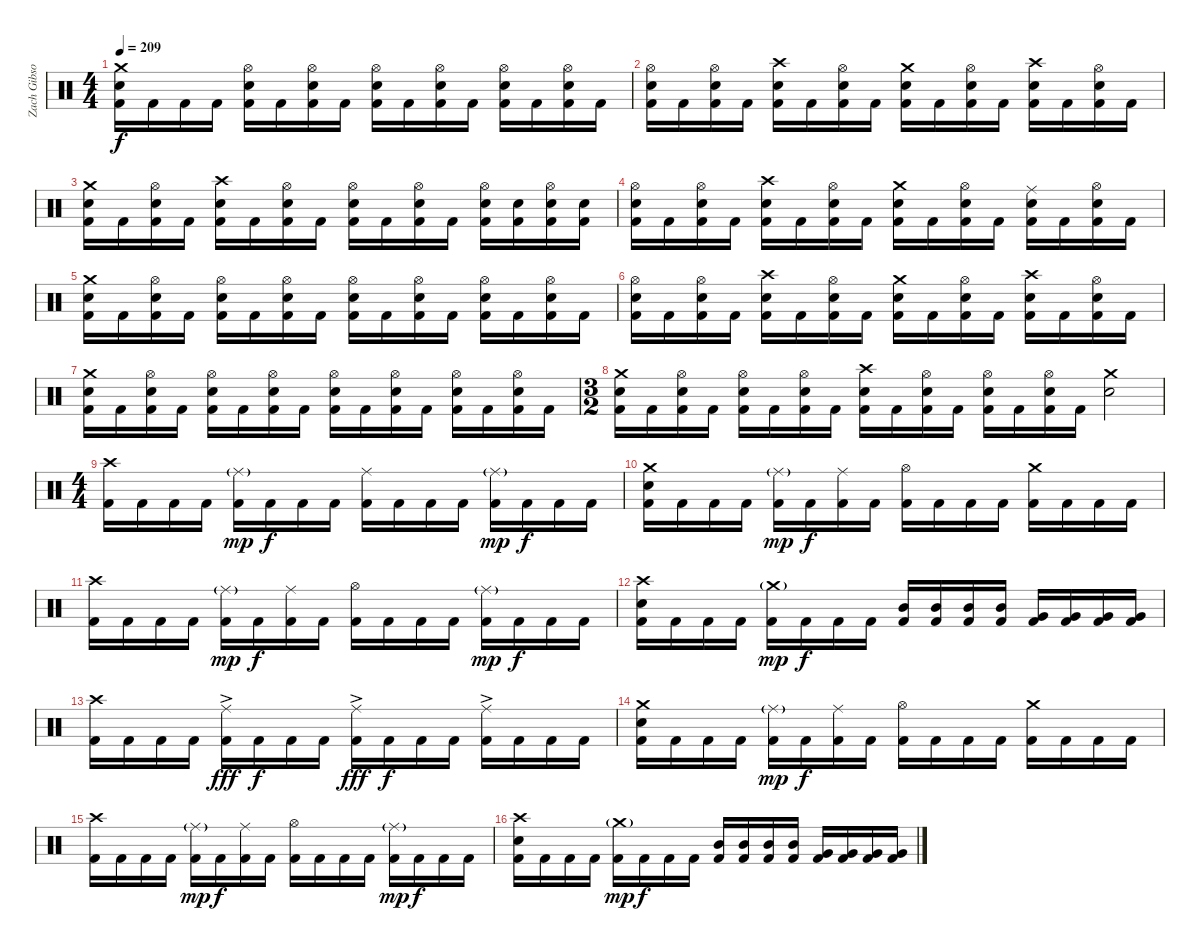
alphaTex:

\track ("Zach Gibson (Drums)" "Zach Gibso") {instrument percussion}
\staff {score}
\articulation defaults
\ts (4 4)
\tempo 209
\clef neutral
\ks c
("Crash medium (hit)" "Snare (hit) 2" "Kick (hit) 2").16{dy f} "Kick (hit) 2".16 "Kick (hit) 2".16 "Kick (hit) 2".16 ("Hi-Hat (open)" "Snare (hit) 2" "Kick (hit) 2").16 "Kick (hit) 2".16 ("Hi-Hat (open)" "Snare (hit) 2" "Kick (hit) 2").16 "Kick (hit) 2".16 ("Hi-Hat (open)" "Snare (hit) 2" "Kick (hit) 2").16 "Kick (hit) 2".16 ("Hi-Hat (open)" "Snare (hit) 2" "Kick (hit) 2").16 "Kick (hit) 2".16 ("Hi-Hat (open)" "Snare (hit) 2" "Kick (hit) 2").16 "Kick (hit) 2".16 ("Hi-Hat (open)" "Snare (hit) 2" "Kick (hit) 2").16 "Kick (hit) 2".16 |
("Hi-Hat (open)" "Snare (hit) 2" "Kick (hit) 2").16 "Kick (hit) 2".16 ("Hi-Hat (open)" "Snare (hit) 2" "Kick (hit) 2").16 "Kick (hit) 2".16 ("Crash high (hit)" "Snare (hit) 2" "Kick (hit) 2").16 "Kick (hit) 2".16 ("Hi-Hat (open)" "Snare (hit) 2" "Kick (hit) 2").16 "Kick (hit) 2".16 ("Crash medium (hit)" "Snare (hit) 2" "Kick (hit) 2").16 "Kick (hit) 2".16 ("Hi-Hat (open)" "Snare (hit) 2" "Kick (hit) 2").16 "Kick (hit) 2".16 ("Crash high (hit)" "Snare (hit) 2" "Kick (hit) 2").16 "Kick (hit) 2".16 ("Hi-Hat (open)" "Snare (hit) 2" "Kick (hit) 2").16 "Kick (hit) 2".16 |
("Crash medium (hit)" "Snare (hit) 2" "Kick (hit) 2").16 "Kick (hit) 2".16 ("Hi-Hat (open)" "Snare (hit) 2" "Kick (hit) 2").16 "Kick (hit) 2".16 ("Crash high (hit)" "Snare (hit) 2" "Kick (hit) 2").16 "Kick (hit) 2".16 ("Hi-Hat (open)" "Snare (hit) 2" "Kick (hit) 2").16 "Kick (hit) 2".16 ("Hi-Hat (open)" "Snare (hit) 2" "Kick (hit) 2").16 "Kick (hit) 2".16 ("Hi-Hat (open)" "Snare (hit) 2" "Kick (hit) 2").16 "Kick (hit) 2".16 ("Hi-Hat (open)" "Snare (hit) 2" "Kick (hit) 2").16 ("Snare (hit) 2" "Kick (hit) 2").16 ("Hi-Hat (open)" "Snare (hit) 2" "Kick (hit) 2").16 ("Snare (hit) 2" "Kick (hit) 2").16 |
("Hi-Hat (open)" "Snare (hit) 2" "Kick (hit) 2").16 "Kick (hit) 2".16 ("Hi-Hat (open)" "Snare (hit) 2" "Kick (hit) 2").16 "Kick (hit) 2".16 ("Crash high (hit)" "Snare (hit) 2" "Kick (hit) 2").16 "Kick (hit) 2".16 ("Hi-Hat (open)" "Snare (hit) 2" "Kick (hit) 2").16 "Kick (hit) 2".16 ("Crash medium (hit)" "Snare (hit) 2" "Kick (hit) 2").16 "Kick (hit) 2".16 ("Hi-Hat (open)" "Snare (hit) 2" "Kick (hit) 2").16 "Kick (hit) 2".16 ("Ride (middle)" "Snare (hit) 2" "Kick (hit) 2").16 "Kick (hit) 2".16 ("Hi-Hat (open)" "Snare (hit) 2" "Kick (hit) 2").16 "Kick (hit) 2".16 |
("Crash medium (hit)" "Snare (hit) 2" "Kick (hit) 2").16 "Kick (hit) 2".16 ("Hi-Hat (open)" "Snare (hit) 2" "Kick (hit) 2").16 "Kick (hit) 2".16 ("Hi-Hat (open)" "Snare (hit) 2" "Kick (hit) 2").16 "Kick (hit) 2".16 ("Hi-Hat (open)" "Snare (hit) 2" "Kick (hit) 2").16 "Kick (hit) 2".16 ("Hi-Hat (open)" "Snare (hit) 2" "Kick (hit) 2").16 "Kick (hit) 2".16 ("Hi-Hat (open)" "Snare (hit) 2" "Kick (hit) 2").16 "Kick (hit) 2".16 ("Hi-Hat (open)" "Snare (hit) 2" "Kick (hit) 2").16 "Kick (hit) 2".16 ("Hi-Hat (open)" "Snare (hit) 2" "Kick (hit) 2").16 "Kick (hit) 2".16 |
("Hi-Hat (open)" "Snare (hit) 2" "Kick (hit) 2").16 "Kick (hit) 2".16 ("Hi-Hat (open)" "Snare (hit) 2" "Kick (hit) 2").16 "Kick (hit) 2".16 ("Crash high (hit)" "Snare (hit) 2" "Kick (hit) 2").16 "Kick (hit) 2".16 ("Hi-Hat (open)" "Snare (hit) 2" "Kick (hit) 2").16 "Kick (hit) 2".16 ("Crash medium (hit)" "Snare (hit) 2" "Kick (hit) 2").16 "Kick (hit) 2".16 ("Hi-Hat (open)" "Snare (hit) 2" "Kick (hit) 2").16 "Kick (hit) 2".16 ("Crash high (hit)" "Snare (hit) 2" "Kick (hit) 2").16 "Kick (hit) 2".16 ("Hi-Hat (open)" "Snare (hit) 2" "Kick (hit) 2").16 "Kick (hit) 2".16 |
("Crash medium (hit)" "Snare (hit) 2" "Kick (hit) 2").16 "Kick (hit) 2".16 ("Hi-Hat (open)" "Snare (hit) 2" "Kick (hit) 2").16 "Kick (hit) 2".16 ("Hi-Hat (open)" "Snare (hit) 2" "Kick (hit) 2").16 "Kick (hit) 2".16 ("Hi-Hat (open)" "Snare (hit) 2" "Kick (hit) 2").16 "Kick (hit) 2".16 ("Hi-Hat (open)" "Snare (hit) 2" "Kick (hit) 2").16 "Kick (hit) 2".16 ("Hi-Hat (open)" "Snare (hit) 2" "Kick (hit) 2").16 "Kick (hit) 2".16 ("Hi-Hat (open)" "Snare (hit) 2" "Kick (hit) 2").16 "Kick (hit) 2".16 ("Hi-Hat (open)" "Snare (hit) 2" "Kick (hit) 2").16 "Kick (hit) 2".16 |
\ts (3 2)
("Crash medium (hit)" "Snare (hit) 2" "Kick (hit) 2").16 "Kick (hit) 2".16 ("Hi-Hat (open)" "Snare (hit) 2" "Kick (hit) 2").16 "Kick (hit) 2".16 ("Hi-Hat (open)" "Snare (hit) 2" "Kick (hit) 2").16 "Kick (hit) 2".16 ("Hi-Hat (open)" "Snare (hit) 2" "Kick (hit) 2").16 "Kick (hit) 2".16 ("Crash high (hit)" "Snare (hit) 2" "Kick (hit) 2").16 "Kick (hit) 2".16 ("Hi-Hat (open)" "Snare (hit) 2" "Kick (hit) 2").16 "Kick (hit) 2".16 ("Hi-Hat (open)" "Snare (hit) 2" "Kick (hit) 2").16 "Kick (hit) 2".16 ("Hi-Hat (open)" "Snare (hit) 2" "Kick (hit) 2").16 "Kick (hit) 2".16 ("Crash medium (hit)" "Snare (hit) 2").2 |
\ts (4 4)
("Crash high (hit)" "Kick (hit) 2").16 "Kick (hit) 2".16 "Kick (hit) 2".16 "Kick (hit) 2".16 ("Ride (middle)"{g} "Kick (hit) 2").16{dy mp} "Kick (hit) 2".16{dy f} "Kick (hit) 2".16 "Kick (hit) 2".16 ("Ride (middle)" "Kick (hit) 2").16 "Kick (hit) 2".16 "Kick (hit) 2".16 "Kick (hit) 2".16 ("Ride (middle)"{g} "Kick (hit) 2").16{dy mp} "Kick (hit) 2".16{dy f} "Kick (hit) 2".16 "Kick (hit) 2".16 |
("Crash medium (hit)" "Snare (hit) 2" "Kick (hit) 2").16 "Kick (hit) 2".16 "Kick (hit) 2".16 "Kick (hit) 2".16 ("Ride (middle)"{g} "Kick (hit) 2").16{dy mp} "Kick (hit) 2".16{dy f} ("Ride (middle)" "Kick (hit) 2").16 "Kick (hit) 2".16 ("Hi-Hat (open)" "Kick (hit) 2").16 "Kick (hit) 2".16 "Kick (hit) 2".16 "Kick (hit) 2".16 ("Crash medium (hit)" "Kick (hit) 2").16 "Kick (hit) 2".16 "Kick (hit) 2".16 "Kick (hit) 2".16 |
("Crash high (hit)" "Kick (hit) 2").16 "Kick (hit) 2".16 "Kick (hit) 2".16 "Kick (hit) 2".16 ("Ride (middle)"{g} "Kick (hit) 2").16{dy mp} "Kick (hit) 2".16{dy f} ("Ride (middle)" "Kick (hit) 2").16 "Kick (hit) 2".16 ("Hi-Hat (open)" "Kick (hit) 2").16 "Kick (hit) 2".16 "Kick (hit) 2".16 "Kick (hit) 2".16 ("Ride (middle)"{g} "Kick (hit) 2").16{dy mp} "Kick (hit) 2".16{dy f} "Kick (hit) 2".16 "Kick (hit) 2".16 |
("Snare (hit) 2" "Crash high (hit)" "Kick (hit) 2").16 "Kick (hit) 2".16 "Kick (hit) 2".16 "Kick (hit) 2".16 ("Crash medium (hit)"{g} "Kick (hit) 2").16{dy mp} "Kick (hit) 2".16{dy f} "Kick (hit) 2".16 "Kick (hit) 2".16 ("Mid Tom (hit)" "Kick (hit) 2").16 ("Mid Tom (hit)" "Kick (hit) 2").16 ("Mid Tom (hit)" "Kick (hit) 2").16 ("Mid Tom (hit)" "Kick (hit) 2").16 ("Very Low Tom (hit)" "Kick (hit) 2").16 ("Very Low Tom (hit)" "Kick (hit) 2").16 ("Very Low Tom (hit)" "Kick (hit) 2").16 ("Very Low Tom (hit)" "Kick (hit) 2").16 |
("Crash high (hit)" "Kick (hit) 2").16 "Kick (hit) 2".16 "Kick (hit) 2".16 "Kick (hit) 2".16 ("Ride (middle)"{ac} "Kick (hit) 2").16{dy fff} "Kick (hit) 2".16{dy f} "Kick (hit) 2".16 "Kick (hit) 2".16 ("Ride (middle)"{ac} "Kick (hit) 2").16{dy fff} "Kick (hit) 2".16{dy f} "Kick (hit) 2".16 "Kick (hit) 2".16 ("Ride (middle)"{ac} "Kick (hit) 2").16 "Kick (hit) 2".16 "Kick (hit) 2".16 "Kick (hit) 2".16 |
("Crash medium (hit)" "Snare (hit) 2" "Kick (hit) 2").16 "Kick (hit) 2".16 "Kick (hit) 2".16 "Kick (hit) 2".16 ("Ride (middle)"{g} "Kick (hit) 2").16{dy mp} "Kick (hit) 2".16{dy f} ("Ride (middle)" "Kick (hit) 2").16 "Kick (hit) 2".16 ("Hi-Hat (open)" "Kick (hit) 2").16 "Kick (hit) 2".16 "Kick (hit) 2".16 "Kick (hit) 2".16 ("Crash medium (hit)" "Kick (hit) 2").16 "Kick (hit) 2".16 "Kick (hit) 2".16 "Kick (hit) 2".16 |
("Crash high (hit)" "Kick (hit) 2").16 "Kick (hit) 2".16 "Kick (hit) 2".16 "Kick (hit) 2".16 ("Ride (middle)"{g} "Kick (hit) 2").16{dy mp} "Kick (hit) 2".16{dy f} ("Ride (middle)" "Kick (hit) 2").16 "Kick (hit) 2".16 ("Hi-Hat (open)" "Kick (hit) 2").16 "Kick (hit) 2".16 "Kick (hit) 2".16 "Kick (hit) 2".16 ("Ride (middle)"{g} "Kick (hit) 2").16{dy mp} "Kick (hit) 2".16{dy f} "Kick (hit) 2".16 "Kick (hit) 2".16 |
("Snare (hit) 2" "Crash high (hit)" "Kick (hit) 2").16 "Kick (hit) 2".16 "Kick (hit) 2".16 "Kick (hit) 2".16 ("Crash medium (hit)"{g} "Kick (hit) 2").16{dy mp} "Kick (hit) 2".16{dy f} "Kick (hit) 2".16 "Kick (hit) 2".16 ("Mid Tom (hit)" "Kick (hit) 2").16 ("Mid Tom (hit)" "Kick (hit) 2").16 ("Mid Tom (hit)" "Kick (hit) 2").16 ("Mid Tom (hit)" "Kick (hit) 2").16 ("Very Low Tom (hit)" "Kick (hit) 2").16 ("Very Low Tom (hit)" "Kick (hit) 2").16 ("Very Low Tom (hit)" "Kick (hit) 2").16 ("Very Low Tom (hit)" "Kick (hit) 2").16
